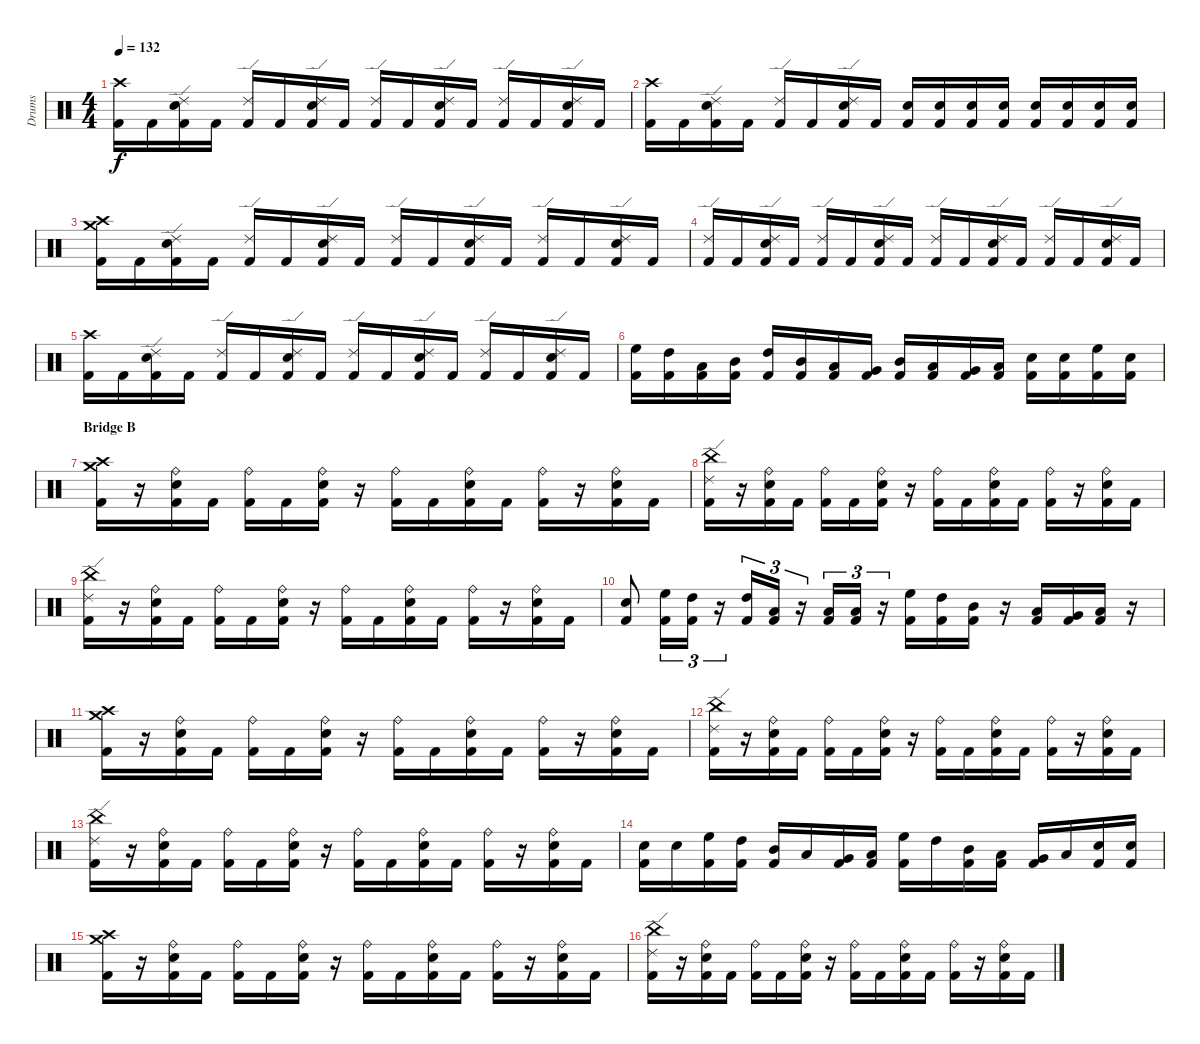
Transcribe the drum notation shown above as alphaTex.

\track ("Drums" "Drums") {instrument percussion}
\staff {score}
\articulation defaults
\ts (4 4)
\tempo 132
\clef neutral
\ks c
("Crash high (hit)" "Kick (hit) 2").16{dy f} "Kick (hit) 2".16 ("Ride (edge) 2" "Electric Snare (hit)" "Kick (hit) 2").16 "Kick (hit) 2".16 ("Ride (edge) 2" "Kick (hit) 2").16 "Kick (hit) 2".16 ("Ride (edge) 2" "Electric Snare (hit)" "Kick (hit) 2").16 "Kick (hit) 2".16 ("Ride (edge) 2" "Kick (hit) 2").16 "Kick (hit) 2".16 ("Ride (edge) 2" "Electric Snare (hit)" "Kick (hit) 2").16 "Kick (hit) 2".16 ("Ride (edge) 2" "Kick (hit) 2").16 "Kick (hit) 2".16 ("Ride (edge) 2" "Electric Snare (hit)" "Kick (hit) 2").16 "Kick (hit) 2".16 |
("Crash high (hit)" "Kick (hit) 2").16 "Kick (hit) 2".16 ("Ride (edge) 2" "Electric Snare (hit)" "Kick (hit) 2").16 "Kick (hit) 2".16 ("Ride (edge) 2" "Kick (hit) 2").16 "Kick (hit) 2".16 ("Ride (edge) 2" "Electric Snare (hit)" "Kick (hit) 2").16 "Kick (hit) 2".16 ("Electric Snare (hit)" "Kick (hit) 2").16 ("Electric Snare (hit)" "Kick (hit) 2").16 ("Electric Snare (hit)" "Kick (hit) 2").16 ("Electric Snare (hit)" "Kick (hit) 2").16 ("Electric Snare (hit)" "Kick (hit) 2").16 ("Electric Snare (hit)" "Kick (hit) 2").16 ("Electric Snare (hit)" "Kick (hit) 2").16 ("Electric Snare (hit)" "Kick (hit) 2").16 |
("Crash medium (hit)" "Crash high (hit)" "Kick (hit) 2").16 "Kick (hit) 2".16 ("Ride (edge) 2" "Electric Snare (hit)" "Kick (hit) 2").16 "Kick (hit) 2".16 ("Ride (edge) 2" "Kick (hit) 2").16 "Kick (hit) 2".16 ("Ride (edge) 2" "Electric Snare (hit)" "Kick (hit) 2").16 "Kick (hit) 2".16 ("Ride (edge) 2" "Kick (hit) 2").16 "Kick (hit) 2".16 ("Ride (edge) 2" "Electric Snare (hit)" "Kick (hit) 2").16 "Kick (hit) 2".16 ("Ride (edge) 2" "Kick (hit) 2").16 "Kick (hit) 2".16 ("Ride (edge) 2" "Electric Snare (hit)" "Kick (hit) 2").16 "Kick (hit) 2".16 |
("Ride (edge) 2" "Kick (hit) 2").16 "Kick (hit) 2".16 ("Ride (edge) 2" "Electric Snare (hit)" "Kick (hit) 2").16 "Kick (hit) 2".16 ("Ride (edge) 2" "Kick (hit) 2").16 "Kick (hit) 2".16 ("Ride (edge) 2" "Electric Snare (hit)" "Kick (hit) 2").16 "Kick (hit) 2".16 ("Ride (edge) 2" "Kick (hit) 2").16 "Kick (hit) 2".16 ("Ride (edge) 2" "Electric Snare (hit)" "Kick (hit) 2").16 "Kick (hit) 2".16 ("Ride (edge) 2" "Kick (hit) 2").16 "Kick (hit) 2".16 ("Ride (edge) 2" "Electric Snare (hit)" "Kick (hit) 2").16 "Kick (hit) 2".16 |
("Crash high (hit)" "Kick (hit) 2").16 "Kick (hit) 2".16 ("Ride (edge) 2" "Electric Snare (hit)" "Kick (hit) 2").16 "Kick (hit) 2".16 ("Ride (edge) 2" "Kick (hit) 2").16 "Kick (hit) 2".16 ("Ride (edge) 2" "Electric Snare (hit)" "Kick (hit) 2").16 "Kick (hit) 2".16 ("Ride (edge) 2" "Kick (hit) 2").16 "Kick (hit) 2".16 ("Ride (edge) 2" "Electric Snare (hit)" "Kick (hit) 2").16 "Kick (hit) 2".16 ("Ride (edge) 2" "Kick (hit) 2").16 "Kick (hit) 2".16 ("Ride (edge) 2" "Electric Snare (hit)" "Kick (hit) 2").16 "Kick (hit) 2".16 |
("High Floor Tom (hit)" "Kick (hit) 2").16 ("High Tom (hit)" "Kick (hit) 2").16 ("Low Tom (hit)" "Kick (hit) 2").16 ("Mid Tom (hit)" "Kick (hit) 2").16 ("High Tom (hit)" "Kick (hit) 2").16 ("Mid Tom (hit)" "Kick (hit) 2").16 ("Low Tom (hit)" "Kick (hit) 2").16 ("Very Low Tom (hit)" "Kick (hit) 2").16 ("Mid Tom (hit)" "Kick (hit) 2").16 ("Low Tom (hit)" "Kick (hit) 2").16 ("Very Low Tom (hit)" "Kick (hit) 2").16 ("Low Floor Tom (hit)" "Kick (hit) 2").16 ("Electric Snare (hit)" "Kick (hit) 2").16 ("Electric Snare (hit)" "Kick (hit) 2").16 ("High Floor Tom (hit)" "Kick (hit) 2").16 ("Electric Snare (hit)" "Kick (hit) 2").16 |
\section ("" "Bridge B")
("Crash medium (hit)" "Crash high (hit)" "Kick (hit) 2").16 r.16 ("Ride (bell)" "Electric Snare (hit)" "Kick (hit) 2").16 "Kick (hit) 2".16 ("Ride (bell)" "Kick (hit) 2").16 "Kick (hit) 2".16 ("Ride (bell)" "Electric Snare (hit)" "Kick (hit) 2").16 r.16 ("Ride (bell)" "Kick (hit) 2").16 "Kick (hit) 2".16 ("Ride (bell)" "Electric Snare (hit)" "Kick (hit) 2").16 "Kick (hit) 2".16 ("Ride (bell)" "Kick (hit) 2").16 r.16 ("Ride (bell)" "Electric Snare (hit)" "Kick (hit) 2").16 "Kick (hit) 2".16 |
("Ride (edge) 2" "China (hit)" "Kick (hit) 2").16 r.16 ("Ride (bell)" "Electric Snare (hit)" "Kick (hit) 2").16 "Kick (hit) 2".16 ("Ride (bell)" "Kick (hit) 2").16 "Kick (hit) 2".16 ("Ride (bell)" "Electric Snare (hit)" "Kick (hit) 2").16 r.16 ("Ride (bell)" "Kick (hit) 2").16 "Kick (hit) 2".16 ("Ride (bell)" "Electric Snare (hit)" "Kick (hit) 2").16 "Kick (hit) 2".16 ("Ride (bell)" "Kick (hit) 2").16 r.16 ("Ride (bell)" "Electric Snare (hit)" "Kick (hit) 2").16 "Kick (hit) 2".16 |
("Ride (edge) 2" "China (hit)" "Kick (hit) 2").16 r.16 ("Ride (bell)" "Electric Snare (hit)" "Kick (hit) 2").16 "Kick (hit) 2".16 ("Ride (bell)" "Kick (hit) 2").16 "Kick (hit) 2".16 ("Ride (bell)" "Electric Snare (hit)" "Kick (hit) 2").16 r.16 ("Ride (bell)" "Kick (hit) 2").16 "Kick (hit) 2".16 ("Ride (bell)" "Electric Snare (hit)" "Kick (hit) 2").16 "Kick (hit) 2".16 ("Ride (bell)" "Kick (hit) 2").16 r.16 ("Ride (bell)" "Electric Snare (hit)" "Kick (hit) 2").16 "Kick (hit) 2".16 |
("Electric Snare (hit)" "Kick (hit) 2").8 ("High Floor Tom (hit)" "Kick (hit) 2").16{tu (3 2)} ("High Tom (hit)" "Kick (hit) 2").16{tu (3 2)} r.16{tu (3 2)} ("High Tom (hit)" "Kick (hit) 2").16{tu (3 2)} ("Low Tom (hit)" "Kick (hit) 2").16{tu (3 2)} r.16{tu (3 2)} ("Low Tom (hit)" "Kick (hit) 2").16{tu (3 2)} ("Low Floor Tom (hit)" "Kick (hit) 2").16{tu (3 2)} r.16{tu (3 2)} ("High Floor Tom (hit)" "Kick (hit) 2").16 ("High Tom (hit)" "Kick (hit) 2").16 ("Mid Tom (hit)" "Kick (hit) 2").16 r.16 ("Low Tom (hit)" "Kick (hit) 2").16 ("Very Low Tom (hit)" "Kick (hit) 2").16 ("Low Floor Tom (hit)" "Kick (hit) 2").16 r.16 |
("Crash medium (hit)" "Crash high (hit)" "Kick (hit) 2").16 r.16 ("Ride (bell)" "Electric Snare (hit)" "Kick (hit) 2").16 "Kick (hit) 2".16 ("Ride (bell)" "Kick (hit) 2").16 "Kick (hit) 2".16 ("Ride (bell)" "Electric Snare (hit)" "Kick (hit) 2").16 r.16 ("Ride (bell)" "Kick (hit) 2").16 "Kick (hit) 2".16 ("Ride (bell)" "Electric Snare (hit)" "Kick (hit) 2").16 "Kick (hit) 2".16 ("Ride (bell)" "Kick (hit) 2").16 r.16 ("Ride (bell)" "Electric Snare (hit)" "Kick (hit) 2").16 "Kick (hit) 2".16 |
("Ride (edge) 2" "China (hit)" "Kick (hit) 2").16 r.16 ("Ride (bell)" "Electric Snare (hit)" "Kick (hit) 2").16 "Kick (hit) 2".16 ("Ride (bell)" "Kick (hit) 2").16 "Kick (hit) 2".16 ("Ride (bell)" "Electric Snare (hit)" "Kick (hit) 2").16 r.16 ("Ride (bell)" "Kick (hit) 2").16 "Kick (hit) 2".16 ("Ride (bell)" "Electric Snare (hit)" "Kick (hit) 2").16 "Kick (hit) 2".16 ("Ride (bell)" "Kick (hit) 2").16 r.16 ("Ride (bell)" "Electric Snare (hit)" "Kick (hit) 2").16 "Kick (hit) 2".16 |
("Ride (edge) 2" "China (hit)" "Kick (hit) 2").16 r.16 ("Ride (bell)" "Electric Snare (hit)" "Kick (hit) 2").16 "Kick (hit) 2".16 ("Ride (bell)" "Kick (hit) 2").16 "Kick (hit) 2".16 ("Ride (bell)" "Electric Snare (hit)" "Kick (hit) 2").16 r.16 ("Ride (bell)" "Kick (hit) 2").16 "Kick (hit) 2".16 ("Ride (bell)" "Electric Snare (hit)" "Kick (hit) 2").16 "Kick (hit) 2".16 ("Ride (bell)" "Kick (hit) 2").16 r.16 ("Ride (bell)" "Electric Snare (hit)" "Kick (hit) 2").16 "Kick (hit) 2".16 |
("Electric Snare (hit)" "Kick (hit) 2").16 "Electric Snare (hit)".16 ("High Floor Tom (hit)" "Kick (hit) 2").16 ("High Tom (hit)" "Kick (hit) 2").16 ("Mid Tom (hit)" "Kick (hit) 2").16 "Low Tom (hit)".16 ("Very Low Tom (hit)" "Kick (hit) 2").16 ("Low Floor Tom (hit)" "Kick (hit) 2").16 ("High Floor Tom (hit)" "Kick (hit) 2").16 "High Tom (hit)".16 ("Mid Tom (hit)" "Kick (hit) 2").16 ("Low Tom (hit)" "Kick (hit) 2").16 ("Very Low Tom (hit)" "Kick (hit) 2").16 "Low Floor Tom (hit)".16 ("Electric Snare (hit)" "Kick (hit) 2").16 ("Electric Snare (hit)" "Kick (hit) 2").16 |
("Crash medium (hit)" "Crash high (hit)" "Kick (hit) 2").16 r.16 ("Ride (bell)" "Electric Snare (hit)" "Kick (hit) 2").16 "Kick (hit) 2".16 ("Ride (bell)" "Kick (hit) 2").16 "Kick (hit) 2".16 ("Ride (bell)" "Electric Snare (hit)" "Kick (hit) 2").16 r.16 ("Ride (bell)" "Kick (hit) 2").16 "Kick (hit) 2".16 ("Ride (bell)" "Electric Snare (hit)" "Kick (hit) 2").16 "Kick (hit) 2".16 ("Ride (bell)" "Kick (hit) 2").16 r.16 ("Ride (bell)" "Electric Snare (hit)" "Kick (hit) 2").16 "Kick (hit) 2".16 |
("Ride (edge) 2" "China (hit)" "Kick (hit) 2").16 r.16 ("Ride (bell)" "Electric Snare (hit)" "Kick (hit) 2").16 "Kick (hit) 2".16 ("Ride (bell)" "Kick (hit) 2").16 "Kick (hit) 2".16 ("Ride (bell)" "Electric Snare (hit)" "Kick (hit) 2").16 r.16 ("Ride (bell)" "Kick (hit) 2").16 "Kick (hit) 2".16 ("Ride (bell)" "Electric Snare (hit)" "Kick (hit) 2").16 "Kick (hit) 2".16 ("Ride (bell)" "Kick (hit) 2").16 r.16 ("Ride (bell)" "Electric Snare (hit)" "Kick (hit) 2").16 "Kick (hit) 2".16
